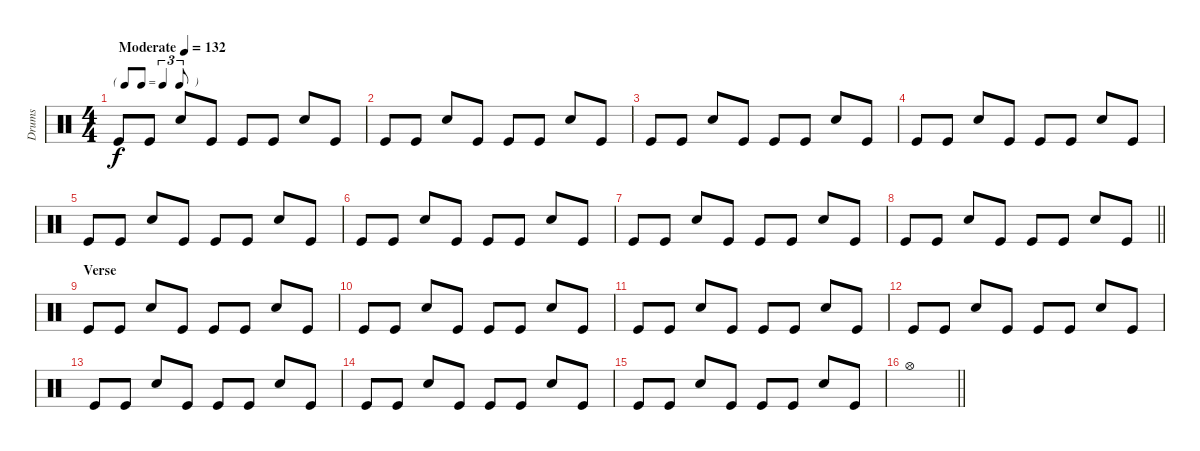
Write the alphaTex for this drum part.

\track ("Drums" "Drums") {instrument percussion}
\staff {score}
\articulation defaults
\ts (4 4)
\tf triplet8th
\tempo (132 "Moderate")
\clef neutral
\ks c "Kick (hit)".8{dy f} "Kick (hit)".8 "Snare (hit) 2".8 "Kick (hit)".8 "Kick (hit)".8 "Kick (hit)".8 "Snare (hit) 2".8 "Kick (hit)".8
|
"Kick (hit)".8 "Kick (hit)".8 "Snare (hit) 2".8 "Kick (hit)".8 "Kick (hit)".8 "Kick (hit)".8 "Snare (hit) 2".8 "Kick (hit)".8 |
"Kick (hit)".8 "Kick (hit)".8 "Snare (hit) 2".8 "Kick (hit)".8 "Kick (hit)".8 "Kick (hit)".8 "Snare (hit) 2".8 "Kick (hit)".8 |
"Kick (hit)".8 "Kick (hit)".8 "Snare (hit) 2".8 "Kick (hit)".8 "Kick (hit)".8 "Kick (hit)".8 "Snare (hit) 2".8 "Kick (hit)".8 |
"Kick (hit)".8 "Kick (hit)".8 "Snare (hit) 2".8 "Kick (hit)".8 "Kick (hit)".8 "Kick (hit)".8 "Snare (hit) 2".8 "Kick (hit)".8 |
"Kick (hit)".8 "Kick (hit)".8 "Snare (hit) 2".8 "Kick (hit)".8 "Kick (hit)".8 "Kick (hit)".8 "Snare (hit) 2".8 "Kick (hit)".8 |
"Kick (hit)".8 "Kick (hit)".8 "Snare (hit) 2".8 "Kick (hit)".8 "Kick (hit)".8 "Kick (hit)".8 "Snare (hit) 2".8 "Kick (hit)".8 |
\barLineRight lightlight "Kick (hit)".8 "Kick (hit)".8 "Snare (hit) 2".8 "Kick (hit)".8 "Kick (hit)".8 "Kick (hit)".8 "Snare (hit) 2".8 "Kick (hit)".8
|
\section ("" "Verse")
"Kick (hit)".8 "Kick (hit)".8 "Snare (hit) 2".8 "Kick (hit)".8 "Kick (hit)".8 "Kick (hit)".8 "Snare (hit) 2".8 "Kick (hit)".8 |
"Kick (hit)".8 "Kick (hit)".8 "Snare (hit) 2".8 "Kick (hit)".8 "Kick (hit)".8 "Kick (hit)".8 "Snare (hit) 2".8 "Kick (hit)".8 |
"Kick (hit)".8 "Kick (hit)".8 "Snare (hit) 2".8 "Kick (hit)".8 "Kick (hit)".8 "Kick (hit)".8 "Snare (hit) 2".8 "Kick (hit)".8 |
"Kick (hit)".8 "Kick (hit)".8 "Snare (hit) 2".8 "Kick (hit)".8 "Kick (hit)".8 "Kick (hit)".8 "Snare (hit) 2".8 "Kick (hit)".8 |
"Kick (hit)".8 "Kick (hit)".8 "Snare (hit) 2".8 "Kick (hit)".8 "Kick (hit)".8 "Kick (hit)".8 "Snare (hit) 2".8 "Kick (hit)".8 |
"Kick (hit)".8 "Kick (hit)".8 "Snare (hit) 2".8 "Kick (hit)".8 "Kick (hit)".8 "Kick (hit)".8 "Snare (hit) 2".8 "Kick (hit)".8 |
"Kick (hit)".8 "Kick (hit)".8 "Snare (hit) 2".8 "Kick (hit)".8 "Kick (hit)".8 "Kick (hit)".8 "Snare (hit) 2".8 "Kick (hit)".8 |
\barLineRight lightlight "Hi-Hat (open)".1
